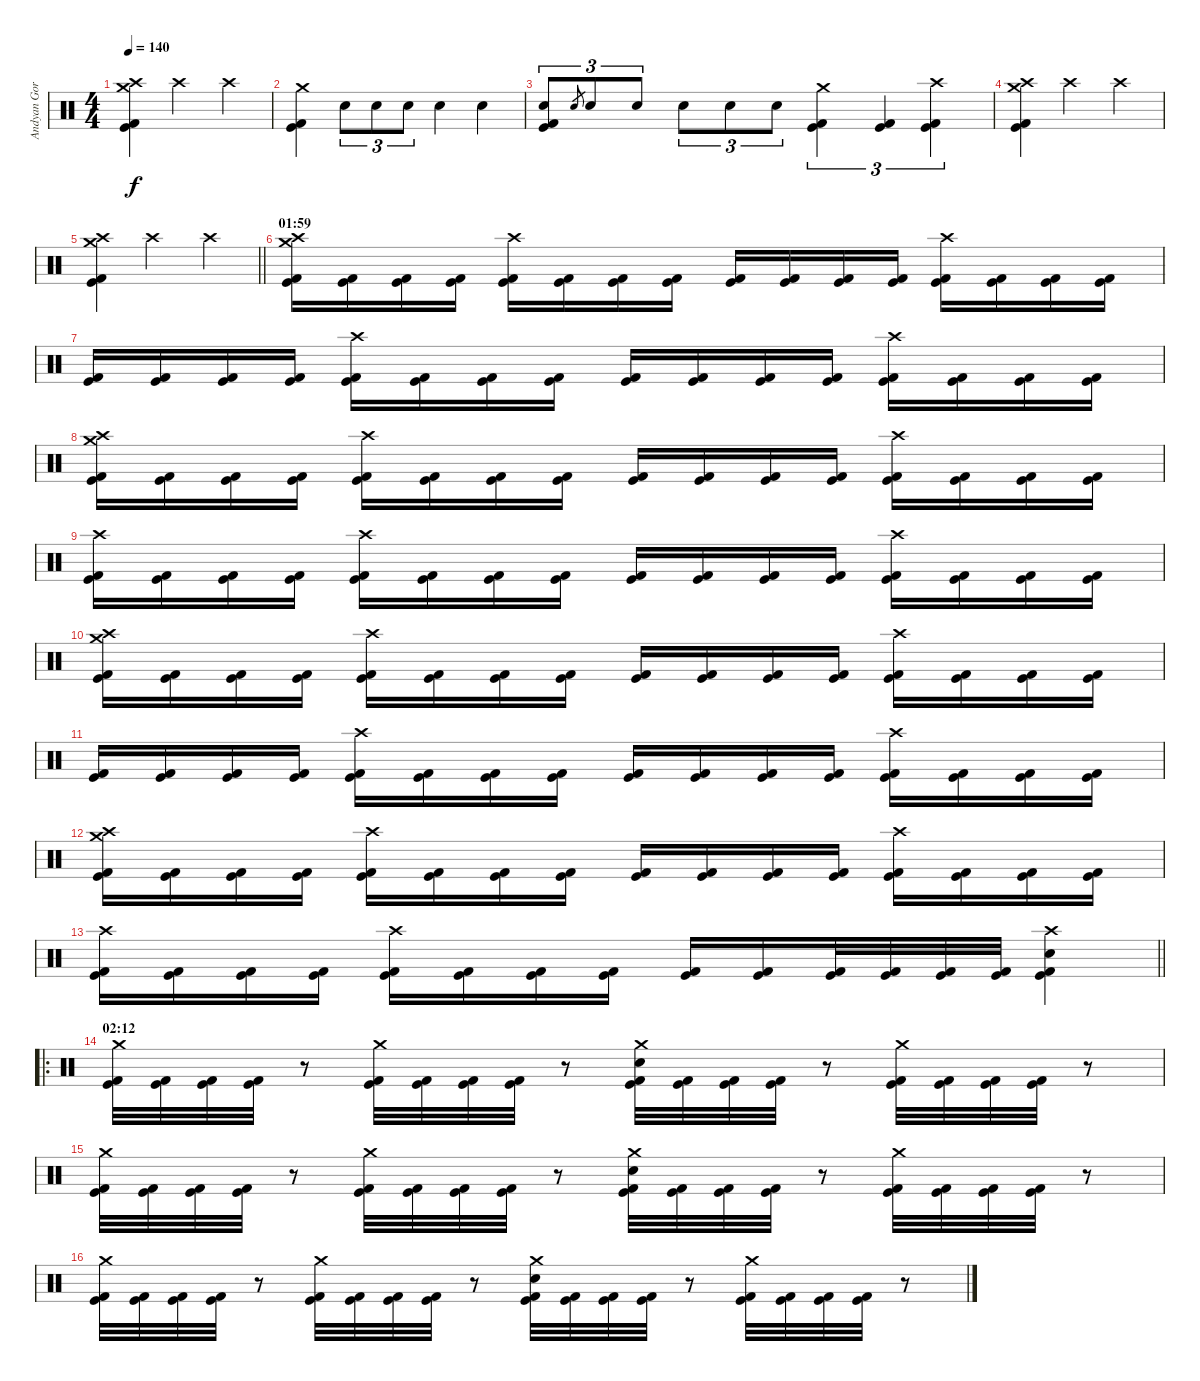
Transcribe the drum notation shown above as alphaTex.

\track ("Andyan Gorust" "Andyan Gor") {instrument percussion}
\staff {score}
\articulation defaults
\ts (4 4)
\tempo 140
\clef neutral
\ks c
("Crash medium (hit)" "Crash high (hit)" "Kick (hit)" "Kick (hit) 2").4{dy f} "Crash high (hit)".2 "Crash high (hit)".4 |
("Crash medium (hit)" "Kick (hit)" "Kick (hit) 2").4 "Electric Snare (hit)".8{tu (3 2)} "Electric Snare (hit)".8{tu (3 2)} "Electric Snare (hit)".8{tu (3 2)} "Electric Snare (hit)".4 "Electric Snare (hit)".4 |
("Electric Snare (hit)" "Kick (hit)" "Kick (hit) 2").8{tu (3 2)} "Electric Snare (hit)".8{gr} "Electric Snare (hit)".8{tu (3 2)} "Electric Snare (hit)".8{tu (3 2)} "Electric Snare (hit)".8{tu (3 2)} "Electric Snare (hit)".8{tu (3 2)} "Electric Snare (hit)".8{tu (3 2)} ("Crash medium (hit)" "Kick (hit)" "Kick (hit) 2").4{tu (3 2)} ("Kick (hit)" "Kick (hit) 2").4{tu (3 2)} ("Crash high (hit)" "Kick (hit)" "Kick (hit) 2").4{tu (3 2)} |
("Crash medium (hit)" "Crash high (hit)" "Kick (hit)" "Kick (hit) 2").4 "Crash high (hit)".2 "Crash high (hit)".4 |
\barLineRight lightlight
("Crash medium (hit)" "Crash high (hit)" "Kick (hit)" "Kick (hit) 2").4 "Crash high (hit)".2 "Crash high (hit)".4 |
\section ("" "01:59")
("Crash medium (hit)" "Crash high (hit)" "Kick (hit)" "Kick (hit) 2").16 ("Kick (hit)" "Kick (hit) 2").16 ("Kick (hit)" "Kick (hit) 2").16 ("Kick (hit)" "Kick (hit) 2").16 ("Crash high (hit)" "Kick (hit)" "Kick (hit) 2").16 ("Kick (hit)" "Kick (hit) 2").16 ("Kick (hit)" "Kick (hit) 2").16 ("Kick (hit)" "Kick (hit) 2").16 ("Kick (hit)" "Kick (hit) 2").16 ("Kick (hit)" "Kick (hit) 2").16 ("Kick (hit)" "Kick (hit) 2").16 ("Kick (hit)" "Kick (hit) 2").16 ("Crash high (hit)" "Kick (hit)" "Kick (hit) 2").16 ("Kick (hit)" "Kick (hit) 2").16 ("Kick (hit)" "Kick (hit) 2").16 ("Kick (hit)" "Kick (hit) 2").16 |
("Kick (hit)" "Kick (hit) 2").16 ("Kick (hit)" "Kick (hit) 2").16 ("Kick (hit)" "Kick (hit) 2").16 ("Kick (hit)" "Kick (hit) 2").16 ("Crash high (hit)" "Kick (hit)" "Kick (hit) 2").16 ("Kick (hit)" "Kick (hit) 2").16 ("Kick (hit)" "Kick (hit) 2").16 ("Kick (hit)" "Kick (hit) 2").16 ("Kick (hit)" "Kick (hit) 2").16 ("Kick (hit)" "Kick (hit) 2").16 ("Kick (hit)" "Kick (hit) 2").16 ("Kick (hit)" "Kick (hit) 2").16 ("Crash high (hit)" "Kick (hit)" "Kick (hit) 2").16 ("Kick (hit)" "Kick (hit) 2").16 ("Kick (hit)" "Kick (hit) 2").16 ("Kick (hit)" "Kick (hit) 2").16 |
("Crash medium (hit)" "Crash high (hit)" "Kick (hit)" "Kick (hit) 2").16 ("Kick (hit)" "Kick (hit) 2").16 ("Kick (hit)" "Kick (hit) 2").16 ("Kick (hit)" "Kick (hit) 2").16 ("Crash high (hit)" "Kick (hit)" "Kick (hit) 2").16 ("Kick (hit)" "Kick (hit) 2").16 ("Kick (hit)" "Kick (hit) 2").16 ("Kick (hit)" "Kick (hit) 2").16 ("Kick (hit)" "Kick (hit) 2").16 ("Kick (hit)" "Kick (hit) 2").16 ("Kick (hit)" "Kick (hit) 2").16 ("Kick (hit)" "Kick (hit) 2").16 ("Crash high (hit)" "Kick (hit)" "Kick (hit) 2").16 ("Kick (hit)" "Kick (hit) 2").16 ("Kick (hit)" "Kick (hit) 2").16 ("Kick (hit)" "Kick (hit) 2").16 |
("Crash high (hit)" "Kick (hit)" "Kick (hit) 2").16 ("Kick (hit)" "Kick (hit) 2").16 ("Kick (hit)" "Kick (hit) 2").16 ("Kick (hit)" "Kick (hit) 2").16 ("Crash high (hit)" "Kick (hit)" "Kick (hit) 2").16 ("Kick (hit)" "Kick (hit) 2").16 ("Kick (hit)" "Kick (hit) 2").16 ("Kick (hit)" "Kick (hit) 2").16 ("Kick (hit)" "Kick (hit) 2").16 ("Kick (hit)" "Kick (hit) 2").16 ("Kick (hit)" "Kick (hit) 2").16 ("Kick (hit)" "Kick (hit) 2").16 ("Crash high (hit)" "Kick (hit)" "Kick (hit) 2").16 ("Kick (hit)" "Kick (hit) 2").16 ("Kick (hit)" "Kick (hit) 2").16 ("Kick (hit)" "Kick (hit) 2").16 |
("Crash medium (hit)" "Crash high (hit)" "Kick (hit)" "Kick (hit) 2").16 ("Kick (hit)" "Kick (hit) 2").16 ("Kick (hit)" "Kick (hit) 2").16 ("Kick (hit)" "Kick (hit) 2").16 ("Crash high (hit)" "Kick (hit)" "Kick (hit) 2").16 ("Kick (hit)" "Kick (hit) 2").16 ("Kick (hit)" "Kick (hit) 2").16 ("Kick (hit)" "Kick (hit) 2").16 ("Kick (hit)" "Kick (hit) 2").16 ("Kick (hit)" "Kick (hit) 2").16 ("Kick (hit)" "Kick (hit) 2").16 ("Kick (hit)" "Kick (hit) 2").16 ("Crash high (hit)" "Kick (hit)" "Kick (hit) 2").16 ("Kick (hit)" "Kick (hit) 2").16 ("Kick (hit)" "Kick (hit) 2").16 ("Kick (hit)" "Kick (hit) 2").16 |
("Kick (hit)" "Kick (hit) 2").16 ("Kick (hit)" "Kick (hit) 2").16 ("Kick (hit)" "Kick (hit) 2").16 ("Kick (hit)" "Kick (hit) 2").16 ("Crash high (hit)" "Kick (hit)" "Kick (hit) 2").16 ("Kick (hit)" "Kick (hit) 2").16 ("Kick (hit)" "Kick (hit) 2").16 ("Kick (hit)" "Kick (hit) 2").16 ("Kick (hit)" "Kick (hit) 2").16 ("Kick (hit)" "Kick (hit) 2").16 ("Kick (hit)" "Kick (hit) 2").16 ("Kick (hit)" "Kick (hit) 2").16 ("Crash high (hit)" "Kick (hit)" "Kick (hit) 2").16 ("Kick (hit)" "Kick (hit) 2").16 ("Kick (hit)" "Kick (hit) 2").16 ("Kick (hit)" "Kick (hit) 2").16 |
("Crash medium (hit)" "Crash high (hit)" "Kick (hit)" "Kick (hit) 2").16 ("Kick (hit)" "Kick (hit) 2").16 ("Kick (hit)" "Kick (hit) 2").16 ("Kick (hit)" "Kick (hit) 2").16 ("Crash high (hit)" "Kick (hit)" "Kick (hit) 2").16 ("Kick (hit)" "Kick (hit) 2").16 ("Kick (hit)" "Kick (hit) 2").16 ("Kick (hit)" "Kick (hit) 2").16 ("Kick (hit)" "Kick (hit) 2").16 ("Kick (hit)" "Kick (hit) 2").16 ("Kick (hit)" "Kick (hit) 2").16 ("Kick (hit)" "Kick (hit) 2").16 ("Crash high (hit)" "Kick (hit)" "Kick (hit) 2").16 ("Kick (hit)" "Kick (hit) 2").16 ("Kick (hit)" "Kick (hit) 2").16 ("Kick (hit)" "Kick (hit) 2").16 |
\barLineRight lightlight
("Crash high (hit)" "Kick (hit)" "Kick (hit) 2").16 ("Kick (hit)" "Kick (hit) 2").16 ("Kick (hit)" "Kick (hit) 2").16 ("Kick (hit)" "Kick (hit) 2").16 ("Crash high (hit)" "Kick (hit)" "Kick (hit) 2").16 ("Kick (hit)" "Kick (hit) 2").16 ("Kick (hit)" "Kick (hit) 2").16 ("Kick (hit)" "Kick (hit) 2").16 ("Kick (hit)" "Kick (hit) 2").16 ("Kick (hit)" "Kick (hit) 2").16 ("Kick (hit)" "Kick (hit) 2").32 ("Kick (hit)" "Kick (hit) 2").32 ("Kick (hit)" "Kick (hit) 2").32 ("Kick (hit)" "Kick (hit) 2").32 ("Crash high (hit)" "Electric Snare (hit)" "Kick (hit)" "Kick (hit) 2").4 |
\ro
\section ("" "02:12")
("Crash medium (hit)" "Kick (hit)" "Kick (hit) 2").32 ("Kick (hit)" "Kick (hit) 2").32 ("Kick (hit)" "Kick (hit) 2").32 ("Kick (hit)" "Kick (hit) 2").32 r.8 ("Crash medium (hit)" "Kick (hit)" "Kick (hit) 2").32 ("Kick (hit)" "Kick (hit) 2").32 ("Kick (hit)" "Kick (hit) 2").32 ("Kick (hit)" "Kick (hit) 2").32 r.8 ("Crash medium (hit)" "Electric Snare (hit)" "Kick (hit)" "Kick (hit) 2").32 ("Kick (hit)" "Kick (hit) 2").32 ("Kick (hit)" "Kick (hit) 2").32 ("Kick (hit)" "Kick (hit) 2").32 r.8 ("Crash medium (hit)" "Kick (hit)" "Kick (hit) 2").32 ("Kick (hit)" "Kick (hit) 2").32 ("Kick (hit)" "Kick (hit) 2").32 ("Kick (hit)" "Kick (hit) 2").32 r.8 |
("Crash medium (hit)" "Kick (hit)" "Kick (hit) 2").32 ("Kick (hit)" "Kick (hit) 2").32 ("Kick (hit)" "Kick (hit) 2").32 ("Kick (hit)" "Kick (hit) 2").32 r.8 ("Crash medium (hit)" "Kick (hit)" "Kick (hit) 2").32 ("Kick (hit)" "Kick (hit) 2").32 ("Kick (hit)" "Kick (hit) 2").32 ("Kick (hit)" "Kick (hit) 2").32 r.8 ("Crash medium (hit)" "Electric Snare (hit)" "Kick (hit)" "Kick (hit) 2").32 ("Kick (hit)" "Kick (hit) 2").32 ("Kick (hit)" "Kick (hit) 2").32 ("Kick (hit)" "Kick (hit) 2").32 r.8 ("Crash medium (hit)" "Kick (hit)" "Kick (hit) 2").32 ("Kick (hit)" "Kick (hit) 2").32 ("Kick (hit)" "Kick (hit) 2").32 ("Kick (hit)" "Kick (hit) 2").32 r.8 |
("Crash medium (hit)" "Kick (hit)" "Kick (hit) 2").32 ("Kick (hit)" "Kick (hit) 2").32 ("Kick (hit)" "Kick (hit) 2").32 ("Kick (hit)" "Kick (hit) 2").32 r.8 ("Crash medium (hit)" "Kick (hit)" "Kick (hit) 2").32 ("Kick (hit)" "Kick (hit) 2").32 ("Kick (hit)" "Kick (hit) 2").32 ("Kick (hit)" "Kick (hit) 2").32 r.8 ("Crash medium (hit)" "Electric Snare (hit)" "Kick (hit)" "Kick (hit) 2").32 ("Kick (hit)" "Kick (hit) 2").32 ("Kick (hit)" "Kick (hit) 2").32 ("Kick (hit)" "Kick (hit) 2").32 r.8 ("Crash medium (hit)" "Kick (hit)" "Kick (hit) 2").32 ("Kick (hit)" "Kick (hit) 2").32 ("Kick (hit)" "Kick (hit) 2").32 ("Kick (hit)" "Kick (hit) 2").32 r.8
